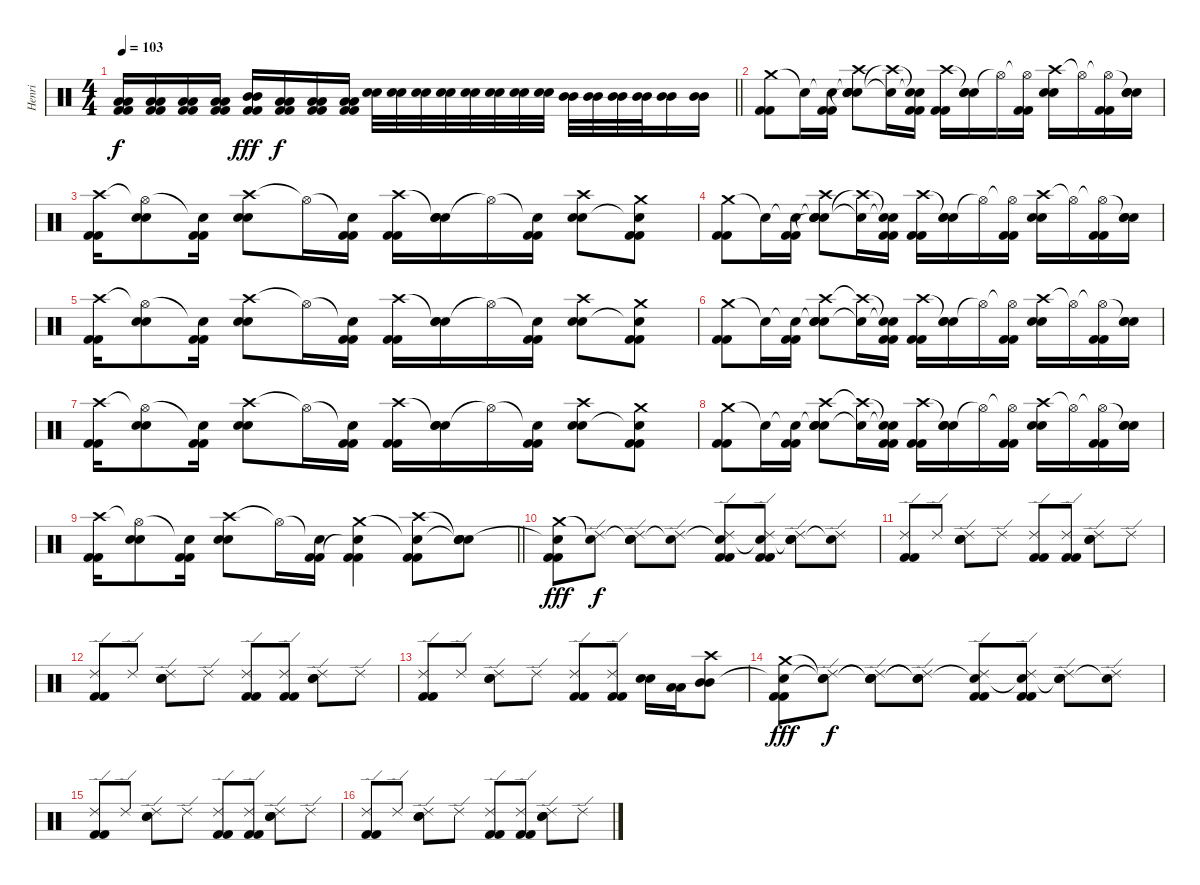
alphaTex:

\track ("Henri" "Henri") {instrument percussion}
\staff {score}
\articulation defaults
\ts (4 4)
\tempo 103
\clef neutral
\barLineRight lightlight
\ks c
("Low Tom (hit)" "Low Tom (hit)" "Kick (hit) 2" "Kick (hit) 2").16{dy f} ("Low Tom (hit)" "Low Tom (hit)" "Kick (hit) 2" "Kick (hit) 2").16 ("Low Tom (hit)" "Low Tom (hit)" "Kick (hit) 2" "Kick (hit) 2").16 ("Low Tom (hit)" "Low Tom (hit)" "Kick (hit) 2" "Kick (hit) 2").16 ("Mid Tom (hit)" "Mid Tom (hit)" "Kick (hit) 2" "Kick (hit) 2").16{dy fff} ("Low Tom (hit)" "Low Tom (hit)" "Kick (hit) 2" "Kick (hit) 2").16{dy f} ("Low Tom (hit)" "Low Tom (hit)" "Kick (hit) 2" "Kick (hit) 2").16 ("Low Tom (hit)" "Low Tom (hit)" "Kick (hit) 2" "Kick (hit) 2").16 ("Snare (hit) 2" "Snare (hit) 2").32 ("Snare (hit) 2" "Snare (hit) 2").32 ("Snare (hit) 2" "Snare (hit) 2").32 ("Snare (hit) 2" "Snare (hit) 2").32 ("Snare (hit) 2" "Snare (hit) 2").32 ("Snare (hit) 2" "Snare (hit) 2").32 ("Snare (hit) 2" "Snare (hit) 2").32 ("Snare (hit) 2" "Snare (hit) 2").32 ("Mid Tom (hit)" "Mid Tom (hit)").32 ("Mid Tom (hit)" "Mid Tom (hit)").32 ("Mid Tom (hit)" "Mid Tom (hit)").32 ("Mid Tom (hit)" "Mid Tom (hit)").32 ("Mid Tom (hit)" "Mid Tom (hit)").16 ("Mid Tom (hit)" "Mid Tom (hit)").16 |
("Crash medium (hit)" "Kick (hit) 2" "Kick (hit) 2").8 "Snare (hit)"{t}.16 ("Snare (hit)"{t} "Kick (hit) 2" "Kick (hit) 2").16 ("Snare (hit)"{t} "Snare (hit)"{t} "Crash high (hit)" "Snare (hit) 2" "Snare (hit) 2").8 ("Snare (hit)"{t} "Crash high (hit)"{t}).16 ("Snare (hit)"{t} "Snare (hit)"{t} "Kick (hit) 2" "Kick (hit) 2").16 ("Crash high (hit)" "Kick (hit) 2" "Kick (hit) 2").16 ("Snare (hit)"{t} "Snare (hit) 2" "Snare (hit) 2").16 "Hi-Hat (open)"{t}.16 ("Hi-Hat (open)"{t} "Kick (hit) 2" "Kick (hit) 2").16 ("Crash high (hit)" "Snare (hit) 2" "Snare (hit) 2").16 "Hi-Hat (open)"{t}.16 ("Hi-Hat (open)"{t} "Kick (hit) 2" "Kick (hit) 2").16 ("Snare (hit)"{t} "Snare (hit) 2" "Snare (hit) 2").16 |
("Crash high (hit)" "Kick (hit) 2" "Kick (hit) 2").16 ("Hi-Hat (open)"{t} "Snare (hit) 2" "Snare (hit) 2").8 ("Snare (hit)"{t} "Kick (hit) 2" "Kick (hit) 2").16 ("Crash high (hit)" "Snare (hit) 2" "Snare (hit) 2").8 "Hi-Hat (open)"{t}.16 ("Snare (hit)"{t} "Kick (hit) 2" "Kick (hit) 2").16 ("Crash high (hit)" "Kick (hit) 2" "Kick (hit) 2").16 ("Snare (hit)"{t} "Snare (hit) 2" "Snare (hit) 2").16 "Hi-Hat (open)"{t}.16 ("Snare (hit)"{t} "Kick (hit) 2" "Kick (hit) 2").16 ("Crash high (hit)" "Snare (hit) 2" "Snare (hit) 2").8 ("Crash medium (hit)" "Snare (hit)"{t} "Kick (hit) 2" "Kick (hit) 2").8 |
("Crash medium (hit)" "Kick (hit) 2" "Kick (hit) 2").8 "Snare (hit)"{t}.16 ("Snare (hit)"{t} "Kick (hit) 2" "Kick (hit) 2").16 ("Snare (hit)"{t} "Snare (hit)"{t} "Crash high (hit)" "Snare (hit) 2" "Snare (hit) 2").8 ("Snare (hit)"{t} "Crash high (hit)"{t}).16 ("Snare (hit)"{t} "Snare (hit)"{t} "Kick (hit) 2" "Kick (hit) 2").16 ("Crash high (hit)" "Kick (hit) 2" "Kick (hit) 2").16 ("Snare (hit)"{t} "Snare (hit) 2" "Snare (hit) 2").16 "Hi-Hat (open)"{t}.16 ("Hi-Hat (open)"{t} "Kick (hit) 2" "Kick (hit) 2").16 ("Crash high (hit)" "Snare (hit) 2" "Snare (hit) 2").16 "Hi-Hat (open)"{t}.16 ("Hi-Hat (open)"{t} "Kick (hit) 2" "Kick (hit) 2").16 ("Snare (hit)"{t} "Snare (hit) 2" "Snare (hit) 2").16 |
("Crash high (hit)" "Kick (hit) 2" "Kick (hit) 2").16 ("Hi-Hat (open)"{t} "Snare (hit) 2" "Snare (hit) 2").8 ("Snare (hit)"{t} "Kick (hit) 2" "Kick (hit) 2").16 ("Crash high (hit)" "Snare (hit) 2" "Snare (hit) 2").8 "Hi-Hat (open)"{t}.16 ("Snare (hit)"{t} "Kick (hit) 2" "Kick (hit) 2").16 ("Crash high (hit)" "Kick (hit) 2" "Kick (hit) 2").16 ("Snare (hit)"{t} "Snare (hit) 2" "Snare (hit) 2").16 "Hi-Hat (open)"{t}.16 ("Snare (hit)"{t} "Kick (hit) 2" "Kick (hit) 2").16 ("Crash high (hit)" "Snare (hit) 2" "Snare (hit) 2").8 ("Crash medium (hit)" "Snare (hit)"{t} "Kick (hit) 2" "Kick (hit) 2").8 |
("Crash medium (hit)" "Kick (hit) 2" "Kick (hit) 2").8 "Snare (hit)"{t}.16 ("Snare (hit)"{t} "Kick (hit) 2" "Kick (hit) 2").16 ("Snare (hit)"{t} "Crash high (hit)" "Snare (hit) 2" "Snare (hit) 2").8 ("Snare (hit)"{t} "Crash high (hit)"{t}).16 ("Snare (hit)"{t} "Snare (hit)"{t} "Kick (hit) 2" "Kick (hit) 2").16 ("Crash high (hit)" "Kick (hit) 2" "Kick (hit) 2").16 ("Snare (hit)"{t} "Snare (hit) 2" "Snare (hit) 2").16 "Hi-Hat (open)"{t}.16 ("Hi-Hat (open)"{t} "Kick (hit) 2" "Kick (hit) 2").16 ("Crash high (hit)" "Snare (hit) 2" "Snare (hit) 2").16 "Hi-Hat (open)"{t}.16 ("Hi-Hat (open)"{t} "Kick (hit) 2" "Kick (hit) 2").16 ("Snare (hit)"{t} "Snare (hit) 2" "Snare (hit) 2").16 |
("Crash high (hit)" "Kick (hit) 2" "Kick (hit) 2").16 ("Hi-Hat (open)"{t} "Snare (hit) 2" "Snare (hit) 2").8 ("Snare (hit)"{t} "Kick (hit) 2" "Kick (hit) 2").16 ("Crash high (hit)" "Snare (hit) 2" "Snare (hit) 2").8 "Hi-Hat (open)"{t}.16 ("Snare (hit)"{t} "Kick (hit) 2" "Kick (hit) 2").16 ("Crash high (hit)" "Kick (hit) 2" "Kick (hit) 2").16 ("Snare (hit)"{t} "Snare (hit) 2" "Snare (hit) 2").16 "Hi-Hat (open)"{t}.16 ("Snare (hit)"{t} "Kick (hit) 2" "Kick (hit) 2").16 ("Crash high (hit)" "Snare (hit) 2" "Snare (hit) 2").8 ("Crash medium (hit)" "Snare (hit)"{t} "Kick (hit) 2" "Kick (hit) 2").8 |
("Crash medium (hit)" "Kick (hit) 2" "Kick (hit) 2").8 "Snare (hit)"{t}.16 ("Snare (hit)"{t} "Kick (hit) 2" "Kick (hit) 2").16 ("Snare (hit)"{t} "Crash high (hit)" "Snare (hit) 2" "Snare (hit) 2").8 ("Snare (hit)"{t} "Crash high (hit)"{t}).16 ("Snare (hit)"{t} "Snare (hit)"{t} "Kick (hit) 2" "Kick (hit) 2").16 ("Crash high (hit)" "Kick (hit) 2" "Kick (hit) 2").16 ("Snare (hit)"{t} "Snare (hit) 2" "Snare (hit) 2").16 "Hi-Hat (open)"{t}.16 ("Hi-Hat (open)"{t} "Kick (hit) 2" "Kick (hit) 2").16 ("Crash high (hit)" "Snare (hit) 2" "Snare (hit) 2").16 "Hi-Hat (open)"{t}.16 ("Hi-Hat (open)"{t} "Kick (hit) 2" "Kick (hit) 2").16 ("Snare (hit)"{t} "Snare (hit) 2" "Snare (hit) 2").16 |
\barLineRight lightlight
("Crash high (hit)" "Kick (hit) 2" "Kick (hit) 2").16 ("Hi-Hat (open)"{t} "Snare (hit) 2" "Snare (hit) 2").8 ("Snare (hit)"{t} "Kick (hit) 2" "Kick (hit) 2").16 ("Crash high (hit)" "Snare (hit) 2" "Snare (hit) 2").8 "Hi-Hat (open)"{t}.16 ("Snare (hit)"{t} "Kick (hit) 2" "Kick (hit) 2").16 ("Crash medium (hit)" "Snare (hit)"{t} "Kick (hit) 2" "Kick (hit) 2").4 ("Snare (hit)"{t} "Crash high (hit)" "Kick (hit) 2" "Kick (hit) 2").8 ("Snare (hit)"{t} "Snare (hit)"{t} "Snare (hit) 2" "Snare (hit) 2").8 |
("Crash medium (hit)" "Snare (hit)"{t} "Kick (hit) 2" "Kick (hit) 2").8{dy fff} ("Snare (hit)"{t} "Ride (edge) 2").8{dy f} ("Snare (hit)"{t} "Ride (edge) 2" "Snare (hit) 2" "Snare (hit) 2").8 ("Snare (hit)"{t} "Ride (edge) 2").8 ("Snare (hit)"{t} "Ride (edge) 2" "Kick (hit) 2" "Kick (hit) 2").8 ("Snare (hit)"{t} "Ride (edge) 2" "Kick (hit) 2" "Kick (hit) 2").8 ("Snare (hit)"{t} "Ride (edge) 2" "Snare (hit) 2" "Snare (hit) 2").8 ("Snare (hit)"{t} "Ride (edge) 2").8 |
("Ride (edge) 2" "Kick (hit) 2" "Kick (hit) 2").8 "Ride (edge) 2".8 ("Ride (edge) 2" "Snare (hit) 2" "Snare (hit) 2").8 "Ride (edge) 2".8 ("Ride (edge) 2" "Kick (hit) 2" "Kick (hit) 2").8 ("Ride (edge) 2" "Kick (hit) 2" "Kick (hit) 2").8 ("Ride (edge) 2" "Snare (hit) 2" "Snare (hit) 2").8 "Ride (edge) 2".8 |
("Ride (edge) 2" "Kick (hit) 2" "Kick (hit) 2").8 "Ride (edge) 2".8 ("Ride (edge) 2" "Snare (hit) 2" "Snare (hit) 2").8 "Ride (edge) 2".8 ("Ride (edge) 2" "Kick (hit) 2" "Kick (hit) 2").8 ("Ride (edge) 2" "Kick (hit) 2" "Kick (hit) 2").8 ("Ride (edge) 2" "Snare (hit) 2" "Snare (hit) 2").8 "Ride (edge) 2".8 |
("Ride (edge) 2" "Kick (hit) 2" "Kick (hit) 2").8 "Ride (edge) 2".8 ("Ride (edge) 2" "Snare (hit) 2" "Snare (hit) 2").8 "Ride (edge) 2".8 ("Ride (edge) 2" "Kick (hit) 2" "Kick (hit) 2").8 ("Ride (edge) 2" "Kick (hit) 2" "Kick (hit) 2").8 ("Snare (hit) 2" "Snare (hit) 2").16 ("Low Tom (hit)" "Low Tom (hit)").16 ("Crash high (hit)" "Mid Tom (hit)" "Mid Tom (hit)").8 |
("Crash medium (hit)" "Snare (hit)"{t} "Kick (hit) 2" "Kick (hit) 2").8{dy fff} ("Snare (hit)"{t} "Snare (hit)"{t} "Ride (edge) 2").8{dy f} ("Snare (hit)"{t} "Snare (hit)"{t} "Ride (edge) 2" "Snare (hit) 2" "Snare (hit) 2").8 ("Snare (hit)"{t} "Snare (hit)"{t} "Ride (edge) 2").8 ("Snare (hit)"{t} "Ride (edge) 2" "Kick (hit) 2" "Kick (hit) 2").8 ("Snare (hit)"{t} "Ride (edge) 2" "Kick (hit) 2" "Kick (hit) 2").8 ("Snare (hit)"{t} "Ride (edge) 2" "Snare (hit) 2" "Snare (hit) 2").8 ("Snare (hit)"{t} "Ride (edge) 2").8 |
("Ride (edge) 2" "Kick (hit) 2" "Kick (hit) 2").8 "Ride (edge) 2".8 ("Ride (edge) 2" "Snare (hit) 2" "Snare (hit) 2").8 "Ride (edge) 2".8 ("Ride (edge) 2" "Kick (hit) 2" "Kick (hit) 2").8 ("Ride (edge) 2" "Kick (hit) 2" "Kick (hit) 2").8 ("Ride (edge) 2" "Snare (hit) 2" "Snare (hit) 2").8 "Ride (edge) 2".8 |
("Ride (edge) 2" "Kick (hit) 2" "Kick (hit) 2").8 "Ride (edge) 2".8 ("Ride (edge) 2" "Snare (hit) 2" "Snare (hit) 2").8 "Ride (edge) 2".8 ("Ride (edge) 2" "Kick (hit) 2" "Kick (hit) 2").8 ("Ride (edge) 2" "Kick (hit) 2" "Kick (hit) 2").8 ("Ride (edge) 2" "Snare (hit) 2" "Snare (hit) 2").8 "Ride (edge) 2".8
